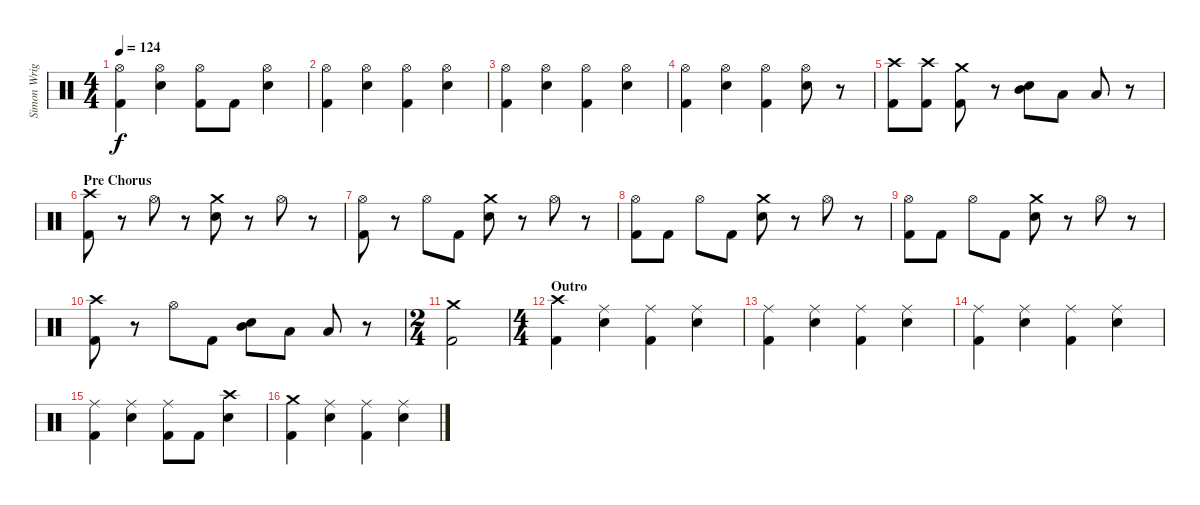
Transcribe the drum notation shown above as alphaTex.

\track ("Simon Wright" "Simon Wrig") {instrument percussion}
\staff {score}
\articulation defaults
\ts (4 4)
\tempo 124
\clef neutral
\ks c
("Hi-Hat (open)" "Kick (hit) 2").4{dy f} ("Hi-Hat (open)" "Electric Snare (hit)").4 ("Hi-Hat (open)" "Kick (hit) 2").8 "Kick (hit) 2".8 ("Hi-Hat (open)" "Electric Snare (hit)").4 |
("Hi-Hat (open)" "Kick (hit) 2").4 ("Hi-Hat (open)" "Electric Snare (hit)").4 ("Hi-Hat (open)" "Kick (hit) 2").4 ("Hi-Hat (open)" "Electric Snare (hit)").4 |
("Hi-Hat (open)" "Kick (hit) 2").4 ("Hi-Hat (open)" "Electric Snare (hit)").4 ("Hi-Hat (open)" "Kick (hit) 2").4 ("Hi-Hat (open)" "Electric Snare (hit)").4 |
("Hi-Hat (open)" "Kick (hit) 2").4 ("Hi-Hat (open)" "Electric Snare (hit)").4 ("Hi-Hat (open)" "Kick (hit) 2").4 ("Hi-Hat (open)" "Electric Snare (hit)").8 r.8 |
("Crash high (hit)" "Kick (hit) 2").8 ("Crash high (hit)" "Kick (hit) 2").8 ("Crash medium (hit)" "Kick (hit) 2").8 r.8 ("Mid Tom (hit)" "Electric Snare (hit)").8 "Low Tom (hit)".8 "Low Tom (hit)".8 r.8 |
\section ("" "Pre Chorus")
("Crash high (hit)" "Kick (hit) 2").8 r.8 "Hi-Hat (open)".8 r.8 ("Crash medium (hit)" "Electric Snare (hit)").8 r.8 "Hi-Hat (open)".8 r.8 |
("Hi-Hat (open)" "Kick (hit) 2").8 r.8 "Hi-Hat (open)".8 "Kick (hit) 2".8 ("Crash medium (hit)" "Electric Snare (hit)").8 r.8 "Hi-Hat (open)".8 r.8 |
("Hi-Hat (open)" "Kick (hit) 2").8 "Kick (hit) 2".8 "Hi-Hat (open)".8 "Kick (hit) 2".8 ("Crash medium (hit)" "Electric Snare (hit)").8 r.8 "Hi-Hat (open)".8 r.8 |
("Hi-Hat (open)" "Kick (hit) 2").8 "Kick (hit) 2".8 "Hi-Hat (open)".8 "Kick (hit) 2".8 ("Crash medium (hit)" "Electric Snare (hit)").8 r.8 "Hi-Hat (open)".8 r.8 |
("Crash high (hit)" "Kick (hit) 2").8 r.8 "Hi-Hat (open)".8 "Kick (hit) 2".8 ("Mid Tom (hit)" "Electric Snare (hit)").8 "Low Tom (hit)".8 "Low Tom (hit)".8 r.8 |
\ts (2 4)
("Crash medium (hit)" "Kick (hit) 2").2 |
\ts (4 4)
\section ("" "Outro")
("Crash high (hit)" "Kick (hit) 2").4 ("Ride (middle)" "Electric Snare (hit)").4 ("Ride (middle)" "Kick (hit) 2").4 ("Ride (middle)" "Electric Snare (hit)").4 |
("Ride (middle)" "Kick (hit) 2").4 ("Ride (middle)" "Electric Snare (hit)").4 ("Ride (middle)" "Kick (hit) 2").4 ("Ride (middle)" "Electric Snare (hit)").4 |
("Ride (middle)" "Kick (hit) 2").4 ("Ride (middle)" "Electric Snare (hit)").4 ("Ride (middle)" "Kick (hit) 2").4 ("Ride (middle)" "Electric Snare (hit)").4 |
("Ride (middle)" "Kick (hit) 2").4 ("Ride (middle)" "Electric Snare (hit)").4 ("Ride (middle)" "Kick (hit) 2").8 "Kick (hit) 2".8 ("Crash high (hit)" "Electric Snare (hit)").4 |
("Crash medium (hit)" "Kick (hit) 2").4 ("Ride (middle)" "Electric Snare (hit)").4 ("Ride (middle)" "Kick (hit) 2").4 ("Ride (middle)" "Electric Snare (hit)").4
